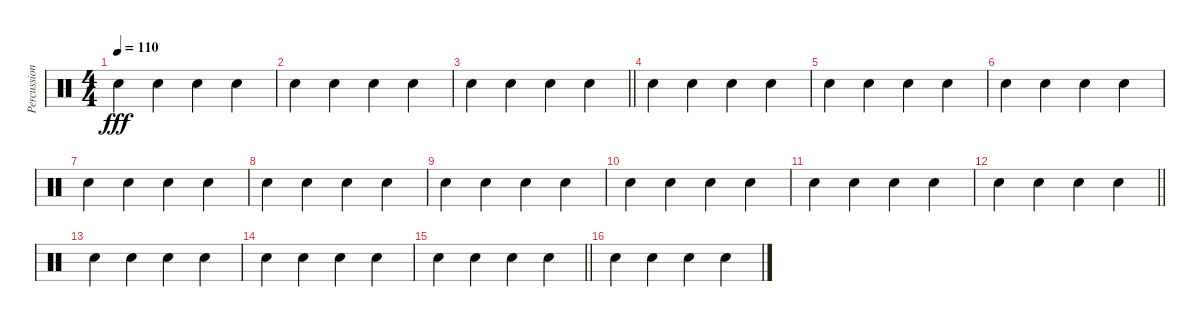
\track ("Percussion" "Percussion") {mute instrument percussion}
\staff {score}
\articulation defaults
\ts (4 4)
\tempo 110
\clef neutral
\ks c "Snare (hit) 2".4{dy fff} "Snare (hit) 2".4 "Snare (hit) 2".4 "Snare (hit) 2".4
|
"Snare (hit) 2".4 "Snare (hit) 2".4 "Snare (hit) 2".4 "Snare (hit) 2".4 |
\barLineRight lightlight "Snare (hit) 2".4 "Snare (hit) 2".4 "Snare (hit) 2".4 "Snare (hit) 2".4
|
"Snare (hit) 2".4 "Snare (hit) 2".4 "Snare (hit) 2".4 "Snare (hit) 2".4 |
"Snare (hit) 2".4 "Snare (hit) 2".4 "Snare (hit) 2".4 "Snare (hit) 2".4 |
"Snare (hit) 2".4 "Snare (hit) 2".4 "Snare (hit) 2".4 "Snare (hit) 2".4 |
"Snare (hit) 2".4 "Snare (hit) 2".4 "Snare (hit) 2".4 "Snare (hit) 2".4 |
"Snare (hit) 2".4 "Snare (hit) 2".4 "Snare (hit) 2".4 "Snare (hit) 2".4 |
"Snare (hit) 2".4 "Snare (hit) 2".4 "Snare (hit) 2".4 "Snare (hit) 2".4 |
"Snare (hit) 2".4 "Snare (hit) 2".4 "Snare (hit) 2".4 "Snare (hit) 2".4 |
"Snare (hit) 2".4 "Snare (hit) 2".4 "Snare (hit) 2".4 "Snare (hit) 2".4 |
\barLineRight lightlight "Snare (hit) 2".4 "Snare (hit) 2".4 "Snare (hit) 2".4 "Snare (hit) 2".4
|
"Snare (hit) 2".4 "Snare (hit) 2".4 "Snare (hit) 2".4 "Snare (hit) 2".4 |
"Snare (hit) 2".4 "Snare (hit) 2".4 "Snare (hit) 2".4 "Snare (hit) 2".4 |
\barLineRight lightlight "Snare (hit) 2".4 "Snare (hit) 2".4 "Snare (hit) 2".4 "Snare (hit) 2".4
|
"Snare (hit) 2".4 "Snare (hit) 2".4 "Snare (hit) 2".4 "Snare (hit) 2".4
